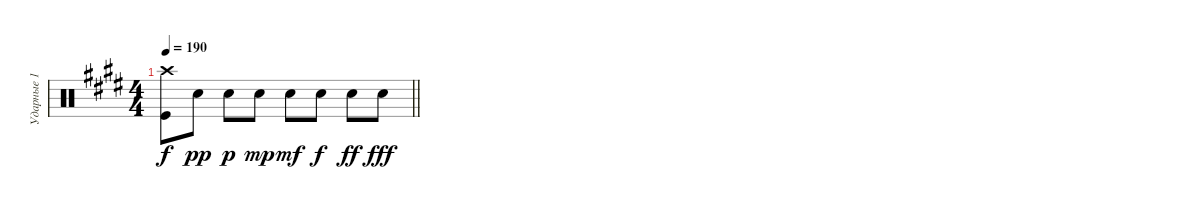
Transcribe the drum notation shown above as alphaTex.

\track ("Ударные 1" "Ударные 1") {instrument percussion}
\staff {score}
\articulation defaults
\ts (4 4)
\tempo 190
\clef neutral
\barLineRight lightlight
\ks c#minor
("Crash high (hit)" "Kick (hit)").8{dy f} "Snare (hit) 2".8{dy pp} "Snare (hit) 2".8{dy p} "Snare (hit) 2".8{dy mp} "Snare (hit) 2".8{dy mf} "Snare (hit) 2".8{dy f} "Snare (hit) 2".8{dy ff} "Snare (hit) 2".8{dy fff}
